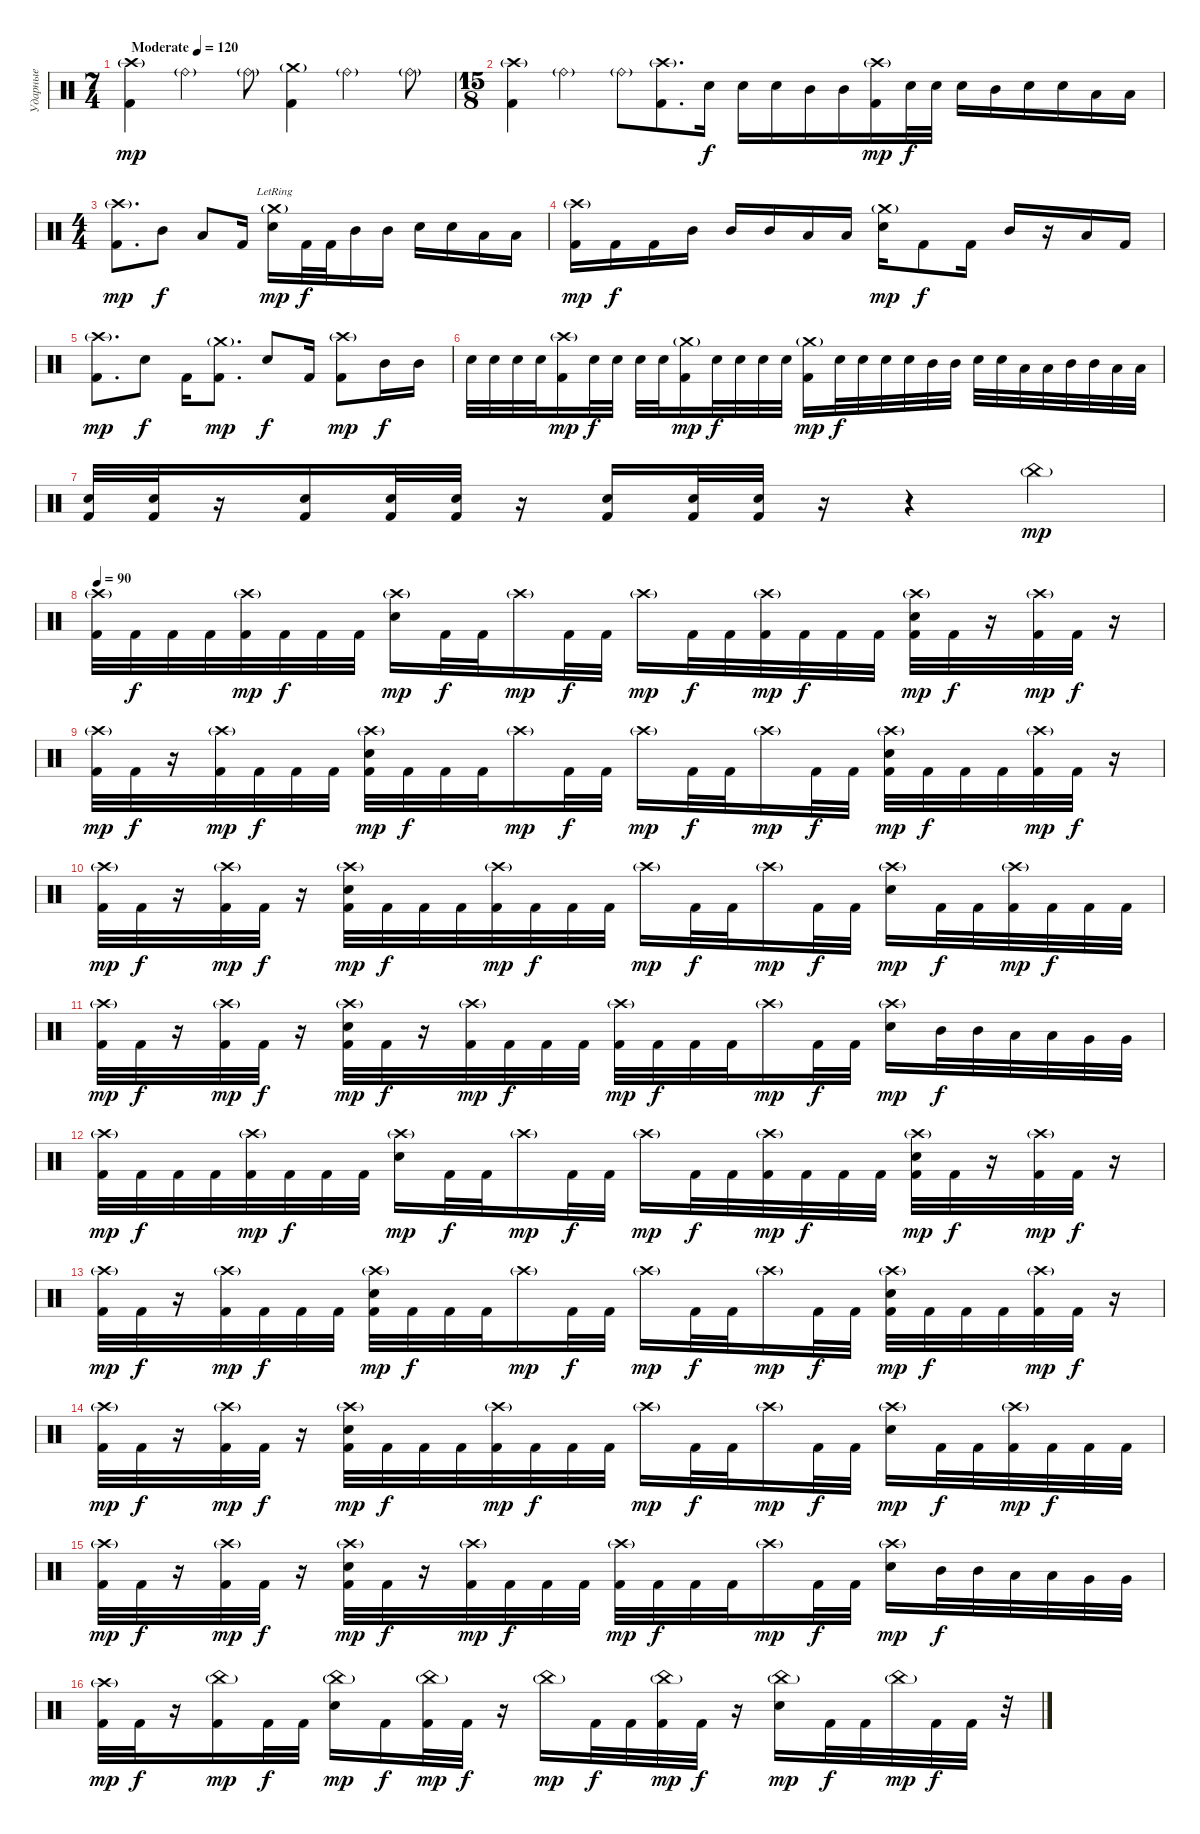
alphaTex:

\track ("Ударные" "Ударные") {instrument percussion}
\staff {score}
\articulation defaults
\ts (7 4)
\tempo (120 "Moderate")
\tempo 96
\tempo (120 "Moderate")
\clef neutral
\ks c
("Crash high (hit)"{g} "Kick (hit) 2").4{dy mp} "Ride (bell)"{g}.2 "Ride (bell)"{g}.8 ("Crash medium (hit)"{g} "Kick (hit) 2").4 "Ride (bell)"{g}.2 "Ride (bell)"{g}.8 |
\ts (15 8)
("Crash high (hit)"{g} "Kick (hit) 2").4 "Ride (bell)"{g}.2 "Ride (bell)"{g}.8 ("Crash high (hit)"{g} "Kick (hit) 2").8{d} "Electric Snare (hit)".16{dy f} "Electric Snare (hit)".16 "Electric Snare (hit)".16 "Mid Tom (hit)".16 "Mid Tom (hit)".16 ("Crash high (hit)"{g} "Kick (hit) 2").16{dy mp} "Electric Snare (hit)".32{dy f} "Electric Snare (hit)".32 "Electric Snare (hit)".16 "Mid Tom (hit)".16 "Electric Snare (hit)".16 "Electric Snare (hit)".16 "Low Tom (hit)".16 "Low Tom (hit)".16 |
\ts (4 4)
("Crash high (hit)"{g} "Kick (hit) 2").8{d dy mp} "Mid Tom (hit)".8{dy f} "Low Tom (hit)".8 "Kick (hit) 2".16 ("Crash medium (hit)"{g lr} "Electric Snare (hit)").16{dy mp} "Kick (hit) 2".32{dy f} "Kick (hit) 2".32 "Mid Tom (hit)".16 "Mid Tom (hit)".16 "Electric Snare (hit)".16 "Electric Snare (hit)".16 "Low Tom (hit)".16 "Low Tom (hit)".16 |
("Crash high (hit)"{g} "Kick (hit) 2").16{dy mp} "Kick (hit) 2".16{dy f} "Kick (hit) 2".16 "Mid Tom (hit)".16 "Mid Tom (hit)".16 "Mid Tom (hit)".16 "Low Tom (hit)".16 "Low Tom (hit)".16 ("Crash medium (hit)"{g} "Electric Snare (hit)").16{dy mp} "Kick (hit) 2".8{dy f} "Kick (hit) 2".16 "Mid Tom (hit)".16 r.16 "Low Tom (hit)".16 "Kick (hit) 2".16 |
("Crash high (hit)"{g} "Kick (hit) 2").8{d dy mp} "Electric Snare (hit)".8{dy f} "Kick (hit) 2".16 ("Crash medium (hit)"{g} "Kick (hit) 2").8{d dy mp} "Electric Snare (hit)".8{dy f} "Kick (hit) 2".16 ("Crash high (hit)"{g} "Kick (hit) 2").8{dy mp} "Mid Tom (hit)".16{dy f} "Mid Tom (hit)".16 |
"Electric Snare (hit)".32 "Electric Snare (hit)".32 "Electric Snare (hit)".32 "Electric Snare (hit)".32 ("Crash high (hit)"{g} "Kick (hit) 2").16{dy mp} "Electric Snare (hit)".32{dy f} "Electric Snare (hit)".32 "Electric Snare (hit)".32 "Electric Snare (hit)".32 ("Crash medium (hit)"{g} "Kick (hit) 2").16{dy mp} "Electric Snare (hit)".32{dy f} "Electric Snare (hit)".32 "Electric Snare (hit)".32 "Electric Snare (hit)".32 ("Crash medium (hit)"{g} "Kick (hit) 2").16{dy mp} "Electric Snare (hit)".32{dy f} "Electric Snare (hit)".32 "Electric Snare (hit)".32 "Electric Snare (hit)".32 "Mid Tom (hit)".32 "Mid Tom (hit)".32 "Electric Snare (hit)".32 "Electric Snare (hit)".32 "Low Tom (hit)".32 "Low Tom (hit)".32 "Mid Tom (hit)".32 "Mid Tom (hit)".32 "Low Tom (hit)".32 "Low Tom (hit)".32 |
("Electric Snare (hit)" "Kick (hit) 2").32 ("Electric Snare (hit)" "Kick (hit) 2").32 r.16 ("Electric Snare (hit)" "Kick (hit) 2").16 ("Electric Snare (hit)" "Kick (hit) 2").32 ("Electric Snare (hit)" "Kick (hit) 2").32 r.16 ("Electric Snare (hit)" "Kick (hit) 2").16 ("Electric Snare (hit)" "Kick (hit) 2").32 ("Electric Snare (hit)" "Kick (hit) 2").32 r.16 r.4 "China (hit)"{g}.4{dy mp} |
\tempo 90
("Crash high (hit)"{g} "Kick (hit) 2").32 "Kick (hit) 2".32{dy f} "Kick (hit) 2".32 "Kick (hit) 2".32 ("Crash high (hit)"{g} "Kick (hit) 2").32{dy mp} "Kick (hit) 2".32{dy f} "Kick (hit) 2".32 "Kick (hit) 2".32 ("Crash high (hit)"{g} "Electric Snare (hit)").16{dy mp} "Kick (hit) 2".32{dy f} "Kick (hit) 2".32 "Crash high (hit)"{g}.16{dy mp} "Kick (hit) 2".32{dy f} "Kick (hit) 2".32 "Crash high (hit)"{g}.16{dy mp} "Kick (hit) 2".32{dy f} "Kick (hit) 2".32 ("Crash high (hit)"{g} "Kick (hit) 2").32{dy mp} "Kick (hit) 2".32{dy f} "Kick (hit) 2".32 "Kick (hit) 2".32 ("Crash high (hit)"{g} "Electric Snare (hit)" "Kick (hit) 2").32{dy mp} "Kick (hit) 2".32{dy f} r.16 ("Crash high (hit)"{g} "Kick (hit) 2").32{dy mp} "Kick (hit) 2".32{dy f} r.16 |
("Crash high (hit)"{g} "Kick (hit) 2").32{dy mp} "Kick (hit) 2".32{dy f} r.16 ("Crash high (hit)"{g} "Kick (hit) 2").32{dy mp} "Kick (hit) 2".32{dy f} "Kick (hit) 2".32 "Kick (hit) 2".32 ("Crash high (hit)"{g} "Electric Snare (hit)" "Kick (hit) 2").32{dy mp} "Kick (hit) 2".32{dy f} "Kick (hit) 2".32 "Kick (hit) 2".32 "Crash high (hit)"{g}.16{dy mp} "Kick (hit) 2".32{dy f} "Kick (hit) 2".32 "Crash high (hit)"{g}.16{dy mp} "Kick (hit) 2".32{dy f} "Kick (hit) 2".32 "Crash high (hit)"{g}.16{dy mp} "Kick (hit) 2".32{dy f} "Kick (hit) 2".32 ("Crash high (hit)"{g} "Electric Snare (hit)" "Kick (hit) 2").32{dy mp} "Kick (hit) 2".32{dy f} "Kick (hit) 2".32 "Kick (hit) 2".32 ("Crash high (hit)"{g} "Kick (hit) 2").32{dy mp} "Kick (hit) 2".32{dy f} r.16 |
("Crash high (hit)"{g} "Kick (hit) 2").32{dy mp} "Kick (hit) 2".32{dy f} r.16 ("Crash high (hit)"{g} "Kick (hit) 2").32{dy mp} "Kick (hit) 2".32{dy f} r.16 ("Crash high (hit)"{g} "Electric Snare (hit)" "Kick (hit) 2").32{dy mp} "Kick (hit) 2".32{dy f} "Kick (hit) 2".32 "Kick (hit) 2".32 ("Crash high (hit)"{g} "Kick (hit) 2").32{dy mp} "Kick (hit) 2".32{dy f} "Kick (hit) 2".32 "Kick (hit) 2".32 "Crash high (hit)"{g}.16{dy mp} "Kick (hit) 2".32{dy f} "Kick (hit) 2".32 "Crash high (hit)"{g}.16{dy mp} "Kick (hit) 2".32{dy f} "Kick (hit) 2".32 ("Crash high (hit)"{g} "Electric Snare (hit)").16{dy mp} "Kick (hit) 2".32{dy f} "Kick (hit) 2".32 ("Crash high (hit)"{g} "Kick (hit) 2").32{dy mp} "Kick (hit) 2".32{dy f} "Kick (hit) 2".32 "Kick (hit) 2".32 |
("Crash high (hit)"{g} "Kick (hit) 2").32{dy mp} "Kick (hit) 2".32{dy f} r.16 ("Crash high (hit)"{g} "Kick (hit) 2").32{dy mp} "Kick (hit) 2".32{dy f} r.16 ("Crash high (hit)"{g} "Electric Snare (hit)" "Kick (hit) 2").32{dy mp} "Kick (hit) 2".32{dy f} r.16 ("Crash high (hit)"{g} "Kick (hit) 2").32{dy mp} "Kick (hit) 2".32{dy f} "Kick (hit) 2".32 "Kick (hit) 2".32 ("Crash high (hit)"{g} "Kick (hit) 2").32{dy mp} "Kick (hit) 2".32{dy f} "Kick (hit) 2".32 "Kick (hit) 2".32 "Crash high (hit)"{g}.16{dy mp} "Kick (hit) 2".32{dy f} "Kick (hit) 2".32 ("Crash high (hit)"{g} "Electric Snare (hit)").16{dy mp} "Mid Tom (hit)".32{dy f} "Mid Tom (hit)".32 "Low Tom (hit)".32 "Low Tom (hit)".32 "Very Low Tom (hit)".32 "Very Low Tom (hit)".32 |
("Crash high (hit)"{g} "Kick (hit) 2").32{dy mp} "Kick (hit) 2".32{dy f} "Kick (hit) 2".32 "Kick (hit) 2".32 ("Crash high (hit)"{g} "Kick (hit) 2").32{dy mp} "Kick (hit) 2".32{dy f} "Kick (hit) 2".32 "Kick (hit) 2".32 ("Crash high (hit)"{g} "Electric Snare (hit)").16{dy mp} "Kick (hit) 2".32{dy f} "Kick (hit) 2".32 "Crash high (hit)"{g}.16{dy mp} "Kick (hit) 2".32{dy f} "Kick (hit) 2".32 "Crash high (hit)"{g}.16{dy mp} "Kick (hit) 2".32{dy f} "Kick (hit) 2".32 ("Crash high (hit)"{g} "Kick (hit) 2").32{dy mp} "Kick (hit) 2".32{dy f} "Kick (hit) 2".32 "Kick (hit) 2".32 ("Crash high (hit)"{g} "Electric Snare (hit)" "Kick (hit) 2").32{dy mp} "Kick (hit) 2".32{dy f} r.16 ("Crash high (hit)"{g} "Kick (hit) 2").32{dy mp} "Kick (hit) 2".32{dy f} r.16 |
("Crash high (hit)"{g} "Kick (hit) 2").32{dy mp} "Kick (hit) 2".32{dy f} r.16 ("Crash high (hit)"{g} "Kick (hit) 2").32{dy mp} "Kick (hit) 2".32{dy f} "Kick (hit) 2".32 "Kick (hit) 2".32 ("Crash high (hit)"{g} "Electric Snare (hit)" "Kick (hit) 2").32{dy mp} "Kick (hit) 2".32{dy f} "Kick (hit) 2".32 "Kick (hit) 2".32 "Crash high (hit)"{g}.16{dy mp} "Kick (hit) 2".32{dy f} "Kick (hit) 2".32 "Crash high (hit)"{g}.16{dy mp} "Kick (hit) 2".32{dy f} "Kick (hit) 2".32 "Crash high (hit)"{g}.16{dy mp} "Kick (hit) 2".32{dy f} "Kick (hit) 2".32 ("Crash high (hit)"{g} "Electric Snare (hit)" "Kick (hit) 2").32{dy mp} "Kick (hit) 2".32{dy f} "Kick (hit) 2".32 "Kick (hit) 2".32 ("Crash high (hit)"{g} "Kick (hit) 2").32{dy mp} "Kick (hit) 2".32{dy f} r.16 |
("Crash high (hit)"{g} "Kick (hit) 2").32{dy mp} "Kick (hit) 2".32{dy f} r.16 ("Crash high (hit)"{g} "Kick (hit) 2").32{dy mp} "Kick (hit) 2".32{dy f} r.16 ("Crash high (hit)"{g} "Electric Snare (hit)" "Kick (hit) 2").32{dy mp} "Kick (hit) 2".32{dy f} "Kick (hit) 2".32 "Kick (hit) 2".32 ("Crash high (hit)"{g} "Kick (hit) 2").32{dy mp} "Kick (hit) 2".32{dy f} "Kick (hit) 2".32 "Kick (hit) 2".32 "Crash high (hit)"{g}.16{dy mp} "Kick (hit) 2".32{dy f} "Kick (hit) 2".32 "Crash high (hit)"{g}.16{dy mp} "Kick (hit) 2".32{dy f} "Kick (hit) 2".32 ("Crash high (hit)"{g} "Electric Snare (hit)").16{dy mp} "Kick (hit) 2".32{dy f} "Kick (hit) 2".32 ("Crash high (hit)"{g} "Kick (hit) 2").32{dy mp} "Kick (hit) 2".32{dy f} "Kick (hit) 2".32 "Kick (hit) 2".32 |
("Crash high (hit)"{g} "Kick (hit) 2").32{dy mp} "Kick (hit) 2".32{dy f} r.16 ("Crash high (hit)"{g} "Kick (hit) 2").32{dy mp} "Kick (hit) 2".32{dy f} r.16 ("Crash high (hit)"{g} "Electric Snare (hit)" "Kick (hit) 2").32{dy mp} "Kick (hit) 2".32{dy f} r.16 ("Crash high (hit)"{g} "Kick (hit) 2").32{dy mp} "Kick (hit) 2".32{dy f} "Kick (hit) 2".32 "Kick (hit) 2".32 ("Crash high (hit)"{g} "Kick (hit) 2").32{dy mp} "Kick (hit) 2".32{dy f} "Kick (hit) 2".32 "Kick (hit) 2".32 "Crash high (hit)"{g}.16{dy mp} "Kick (hit) 2".32{dy f} "Kick (hit) 2".32 ("Crash high (hit)"{g} "Electric Snare (hit)").16{dy mp} "Mid Tom (hit)".32{dy f} "Mid Tom (hit)".32 "Low Tom (hit)".32 "Low Tom (hit)".32 "Very Low Tom (hit)".32 "Very Low Tom (hit)".32 |
("Crash high (hit)"{g} "Kick (hit) 2").32{dy mp} "Kick (hit) 2".32{dy f} r.16 ("China (hit)"{g} "Kick (hit) 2").16{dy mp} "Kick (hit) 2".32{dy f} "Kick (hit) 2".32 ("China (hit)"{g} "Electric Snare (hit)").16{dy mp} "Kick (hit) 2".16{dy f} ("China (hit)"{g} "Kick (hit) 2").32{dy mp} "Kick (hit) 2".32{dy f} r.16 "China (hit)"{g}.16{dy mp} "Kick (hit) 2".32{dy f} "Kick (hit) 2".32 ("China (hit)"{g} "Kick (hit) 2").32{dy mp} "Kick (hit) 2".32{dy f} r.16 ("China (hit)"{g} "Electric Snare (hit)").16{dy mp} "Kick (hit) 2".32{dy f} "Kick (hit) 2".32 "China (hit)"{g}.32{dy mp} "Kick (hit) 2".32{dy f} "Kick (hit) 2".32 r.32
